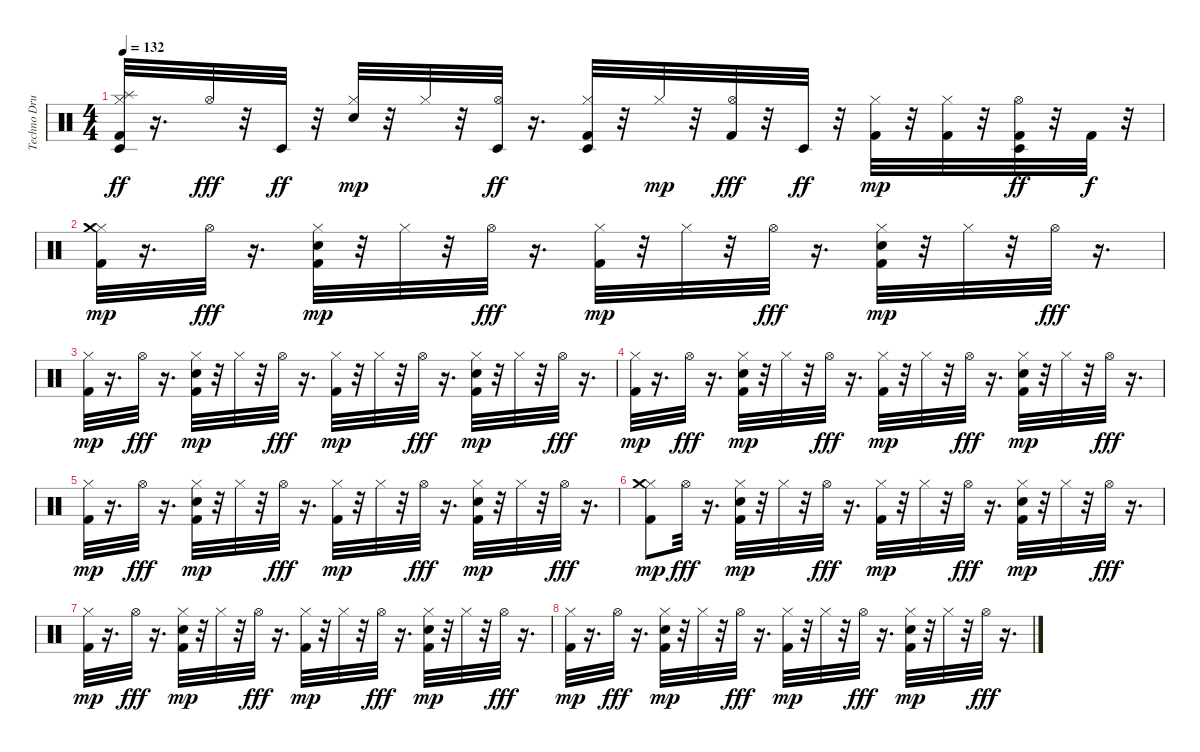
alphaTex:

\track ("Techno Drums" "Techno Dru") {instrument percussion}
\staff {score}
\articulation defaults
\ts (4 4)
\tempo 132
\clef neutral
\ks c
("Kick (hit) 2" "Hi-Hat (closed)" "Splash (hit)" "Timbale low (hit)").32{dy ff} r.16{d} "Hi-Hat (open)".32{dy fff} r.32 "Timbale low (hit)".32{dy ff} r.32 ("Hand Clap (hit)" "Hi-Hat (closed)").32{dy mp} r.32 "Hi-Hat (closed)".32 r.32 ("Hi-Hat (open)" "Timbale low (hit)").32{dy ff} r.16{d} ("Hi-Hat (closed)" "Kick (hit) 2" "Timbale low (hit)").32 r.32 "Hi-Hat (closed)".32{dy mp} r.32 ("Hi-Hat (open)" "Kick (hit) 2").32{dy fff} r.32 "Timbale low (hit)".32{dy ff} r.32 ("Hi-Hat (closed)" "Kick (hit) 2").32{dy mp} r.32 ("Hi-Hat (closed)" "Kick (hit) 2").32 r.32 ("Hi-Hat (open)" "Kick (hit) 2" "Timbale low (hit)").32{dy ff} r.32 "Kick (hit) 2".32{dy f} r.32 |
("Kick (hit) 2" "Hi-Hat (closed)" "Crash medium (hit)").32{dy mp} r.16{d} "Hi-Hat (open)".32{dy fff} r.16{d} ("Kick (hit) 2" "Hand Clap (hit)" "Hi-Hat (closed)").32{dy mp} r.32 "Hi-Hat (closed)".32 r.32 "Hi-Hat (open)".32{dy fff} r.16{d} ("Kick (hit) 2" "Hi-Hat (closed)").32{dy mp} r.32 "Hi-Hat (closed)".32 r.32 "Hi-Hat (open)".32{dy fff} r.16{d} ("Kick (hit) 2" "Hand Clap (hit)" "Hi-Hat (closed)").32{dy mp} r.32 "Hi-Hat (closed)".32 r.32 "Hi-Hat (open)".32{dy fff} r.16{d} |
("Kick (hit) 2" "Hi-Hat (closed)").32{dy mp} r.16{d} "Hi-Hat (open)".32{dy fff} r.16{d} ("Kick (hit) 2" "Hand Clap (hit)" "Hi-Hat (closed)").32{dy mp} r.32 "Hi-Hat (closed)".32 r.32 "Hi-Hat (open)".32{dy fff} r.16{d} ("Kick (hit) 2" "Hi-Hat (closed)").32{dy mp} r.32 "Hi-Hat (closed)".32 r.32 "Hi-Hat (open)".32{dy fff} r.16{d} ("Kick (hit) 2" "Hand Clap (hit)" "Hi-Hat (closed)").32{dy mp} r.32 "Hi-Hat (closed)".32 r.32 "Hi-Hat (open)".32{dy fff} r.16{d} |
("Kick (hit) 2" "Hi-Hat (closed)").32{dy mp} r.16{d} "Hi-Hat (open)".32{dy fff} r.16{d} ("Kick (hit) 2" "Hand Clap (hit)" "Hi-Hat (closed)").32{dy mp} r.32 "Hi-Hat (closed)".32 r.32 "Hi-Hat (open)".32{dy fff} r.16{d} ("Kick (hit) 2" "Hi-Hat (closed)").32{dy mp} r.32 "Hi-Hat (closed)".32 r.32 "Hi-Hat (open)".32{dy fff} r.16{d} ("Kick (hit) 2" "Hand Clap (hit)" "Hi-Hat (closed)").32{dy mp} r.32 "Hi-Hat (closed)".32 r.32 "Hi-Hat (open)".32{dy fff} r.16{d} |
("Kick (hit) 2" "Hi-Hat (closed)").32{dy mp} r.16{d} "Hi-Hat (open)".32{dy fff} r.16{d} ("Kick (hit) 2" "Hand Clap (hit)" "Hi-Hat (closed)").32{dy mp} r.32 "Hi-Hat (closed)".32 r.32 "Hi-Hat (open)".32{dy fff} r.16{d} ("Kick (hit) 2" "Hi-Hat (closed)").32{dy mp} r.32 "Hi-Hat (closed)".32 r.32 "Hi-Hat (open)".32{dy fff} r.16{d} ("Kick (hit) 2" "Hand Clap (hit)" "Hi-Hat (closed)").32{dy mp} r.32 "Hi-Hat (closed)".32 r.32 "Hi-Hat (open)".32{dy fff} r.16{d} |
("Kick (hit) 2" "Hi-Hat (closed)" "Crash medium (hit)").8{dy mp} "Hi-Hat (open)".32{dy fff} r.16{d} ("Kick (hit) 2" "Hand Clap (hit)" "Hi-Hat (closed)").32{dy mp} r.32 "Hi-Hat (closed)".32 r.32 "Hi-Hat (open)".32{dy fff} r.16{d} ("Kick (hit) 2" "Hi-Hat (closed)").32{dy mp} r.32 "Hi-Hat (closed)".32 r.32 "Hi-Hat (open)".32{dy fff} r.16{d} ("Kick (hit) 2" "Hand Clap (hit)" "Hi-Hat (closed)").32{dy mp} r.32 "Hi-Hat (closed)".32 r.32 "Hi-Hat (open)".32{dy fff} r.16{d} |
("Kick (hit) 2" "Hi-Hat (closed)").32{dy mp} r.16{d} "Hi-Hat (open)".32{dy fff} r.16{d} ("Kick (hit) 2" "Hand Clap (hit)" "Hi-Hat (closed)").32{dy mp} r.32 "Hi-Hat (closed)".32 r.32 "Hi-Hat (open)".32{dy fff} r.16{d} ("Kick (hit) 2" "Hi-Hat (closed)").32{dy mp} r.32 "Hi-Hat (closed)".32 r.32 "Hi-Hat (open)".32{dy fff} r.16{d} ("Kick (hit) 2" "Hand Clap (hit)" "Hi-Hat (closed)").32{dy mp} r.32 "Hi-Hat (closed)".32 r.32 "Hi-Hat (open)".32{dy fff} r.16{d} |
("Kick (hit) 2" "Hi-Hat (closed)").32{dy mp} r.16{d} "Hi-Hat (open)".32{dy fff} r.16{d} ("Kick (hit) 2" "Hand Clap (hit)" "Hi-Hat (closed)").32{dy mp} r.32 "Hi-Hat (closed)".32 r.32 "Hi-Hat (open)".32{dy fff} r.16{d} ("Kick (hit) 2" "Hi-Hat (closed)").32{dy mp} r.32 "Hi-Hat (closed)".32 r.32 "Hi-Hat (open)".32{dy fff} r.16{d} ("Kick (hit) 2" "Hand Clap (hit)" "Hi-Hat (closed)").32{dy mp} r.32 "Hi-Hat (closed)".32 r.32 "Hi-Hat (open)".32{dy fff} r.16{d}
